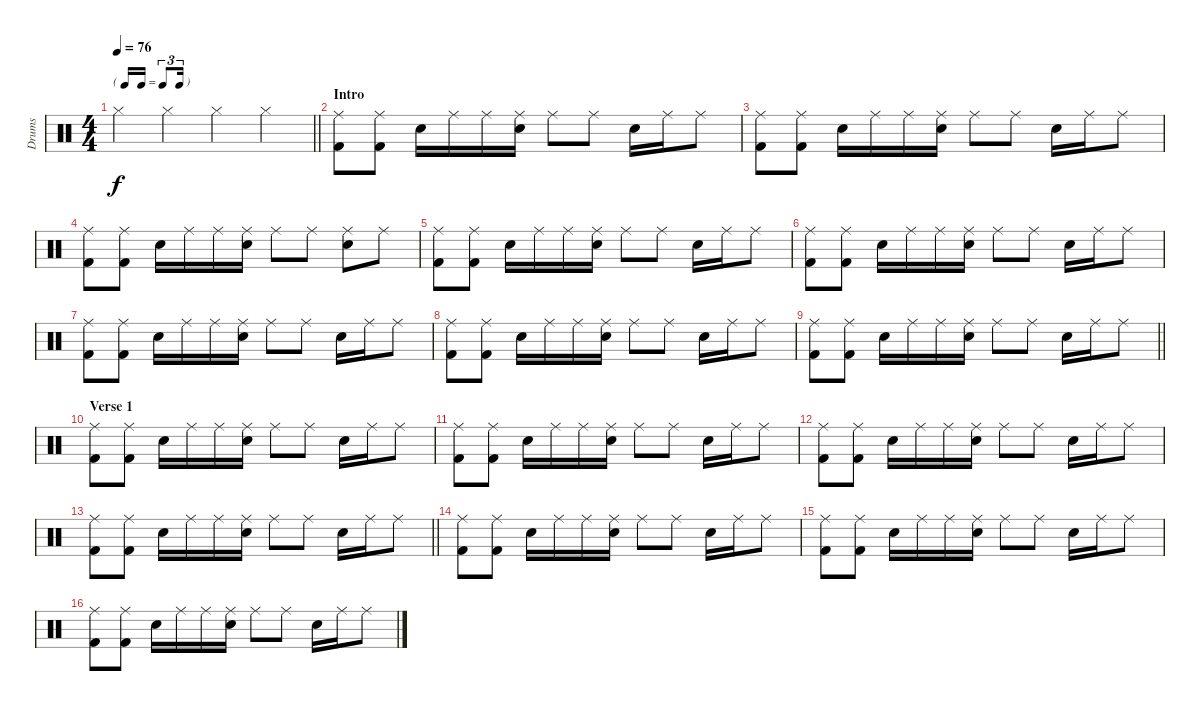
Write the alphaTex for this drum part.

\track ("Drums" "Drums") {instrument percussion}
\staff {score}
\articulation defaults
\ts (4 4)
\tf triplet16th
\tempo 76
\clef neutral
\barLineRight lightlight
\ks c "Hi-Hat (closed)".4{dy f} "Hi-Hat (closed)".4 "Hi-Hat (closed)".4 "Hi-Hat (closed)".4
|
\section ("" "Intro")
("Ride (middle)" "Kick (hit) 2").8 ("Ride (middle)" "Kick (hit) 2").8 "Electric Snare (hit)".16 "Ride (middle)".16 "Ride (middle)".16 ("Ride (middle)" "Electric Snare (hit)").16 "Ride (middle)".8 "Ride (middle)".8 "Electric Snare (hit)".16 "Ride (middle)".16 "Ride (middle)".8 |
("Ride (middle)" "Kick (hit) 2").8 ("Ride (middle)" "Kick (hit) 2").8 "Electric Snare (hit)".16 "Ride (middle)".16 "Ride (middle)".16 ("Ride (middle)" "Electric Snare (hit)").16 "Ride (middle)".8 "Ride (middle)".8 "Electric Snare (hit)".16 "Ride (middle)".16 "Ride (middle)".8 |
("Ride (middle)" "Kick (hit) 2").8 ("Ride (middle)" "Kick (hit) 2").8 "Electric Snare (hit)".16 "Ride (middle)".16 "Ride (middle)".16 ("Ride (middle)" "Electric Snare (hit)").16 "Ride (middle)".8 "Ride (middle)".8 ("Ride (middle)" "Electric Snare (hit)").8 "Ride (middle)".8 |
("Ride (middle)" "Kick (hit) 2").8 ("Ride (middle)" "Kick (hit) 2").8 "Electric Snare (hit)".16 "Ride (middle)".16 "Ride (middle)".16 ("Ride (middle)" "Electric Snare (hit)").16 "Ride (middle)".8 "Ride (middle)".8 "Electric Snare (hit)".16 "Ride (middle)".16 "Ride (middle)".8 |
("Ride (middle)" "Kick (hit) 2").8 ("Ride (middle)" "Kick (hit) 2").8 "Electric Snare (hit)".16 "Ride (middle)".16 "Ride (middle)".16 ("Ride (middle)" "Electric Snare (hit)").16 "Ride (middle)".8 "Ride (middle)".8 "Electric Snare (hit)".16 "Ride (middle)".16 "Ride (middle)".8 |
("Ride (middle)" "Kick (hit) 2").8 ("Ride (middle)" "Kick (hit) 2").8 "Electric Snare (hit)".16 "Ride (middle)".16 "Ride (middle)".16 ("Ride (middle)" "Electric Snare (hit)").16 "Ride (middle)".8 "Ride (middle)".8 "Electric Snare (hit)".16 "Ride (middle)".16 "Ride (middle)".8 |
("Ride (middle)" "Kick (hit) 2").8 ("Ride (middle)" "Kick (hit) 2").8 "Electric Snare (hit)".16 "Ride (middle)".16 "Ride (middle)".16 ("Ride (middle)" "Electric Snare (hit)").16 "Ride (middle)".8 "Ride (middle)".8 "Electric Snare (hit)".16 "Ride (middle)".16 "Ride (middle)".8 |
\barLineRight lightlight
("Ride (middle)" "Kick (hit) 2").8 ("Ride (middle)" "Kick (hit) 2").8 "Electric Snare (hit)".16 "Ride (middle)".16 "Ride (middle)".16 ("Ride (middle)" "Electric Snare (hit)").16 "Ride (middle)".8 "Ride (middle)".8 "Electric Snare (hit)".16 "Ride (middle)".16 "Ride (middle)".8 |
\section ("" "Verse 1")
("Ride (middle)" "Kick (hit) 2").8 ("Ride (middle)" "Kick (hit) 2").8 "Electric Snare (hit)".16 "Ride (middle)".16 "Ride (middle)".16 ("Ride (middle)" "Electric Snare (hit)").16 "Ride (middle)".8 "Ride (middle)".8 "Electric Snare (hit)".16 "Ride (middle)".16 "Ride (middle)".8 |
("Ride (middle)" "Kick (hit) 2").8 ("Ride (middle)" "Kick (hit) 2").8 "Electric Snare (hit)".16 "Ride (middle)".16 "Ride (middle)".16 ("Ride (middle)" "Electric Snare (hit)").16 "Ride (middle)".8 "Ride (middle)".8 "Electric Snare (hit)".16 "Ride (middle)".16 "Ride (middle)".8 |
("Ride (middle)" "Kick (hit) 2").8 ("Ride (middle)" "Kick (hit) 2").8 "Electric Snare (hit)".16 "Ride (middle)".16 "Ride (middle)".16 ("Ride (middle)" "Electric Snare (hit)").16 "Ride (middle)".8 "Ride (middle)".8 "Electric Snare (hit)".16 "Ride (middle)".16 "Ride (middle)".8 |
\barLineRight lightlight
("Ride (middle)" "Kick (hit) 2").8 ("Ride (middle)" "Kick (hit) 2").8 "Electric Snare (hit)".16 "Ride (middle)".16 "Ride (middle)".16 ("Ride (middle)" "Electric Snare (hit)").16 "Ride (middle)".8 "Ride (middle)".8 "Electric Snare (hit)".16 "Ride (middle)".16 "Ride (middle)".8 |
("Ride (middle)" "Kick (hit) 2").8 ("Ride (middle)" "Kick (hit) 2").8 "Electric Snare (hit)".16 "Ride (middle)".16 "Ride (middle)".16 ("Ride (middle)" "Electric Snare (hit)").16 "Ride (middle)".8 "Ride (middle)".8 "Electric Snare (hit)".16 "Ride (middle)".16 "Ride (middle)".8 |
("Ride (middle)" "Kick (hit) 2").8 ("Ride (middle)" "Kick (hit) 2").8 "Electric Snare (hit)".16 "Ride (middle)".16 "Ride (middle)".16 ("Ride (middle)" "Electric Snare (hit)").16 "Ride (middle)".8 "Ride (middle)".8 "Electric Snare (hit)".16 "Ride (middle)".16 "Ride (middle)".8 |
("Ride (middle)" "Kick (hit) 2").8 ("Ride (middle)" "Kick (hit) 2").8 "Electric Snare (hit)".16 "Ride (middle)".16 "Ride (middle)".16 ("Ride (middle)" "Electric Snare (hit)").16 "Ride (middle)".8 "Ride (middle)".8 "Electric Snare (hit)".16 "Ride (middle)".16 "Ride (middle)".8
